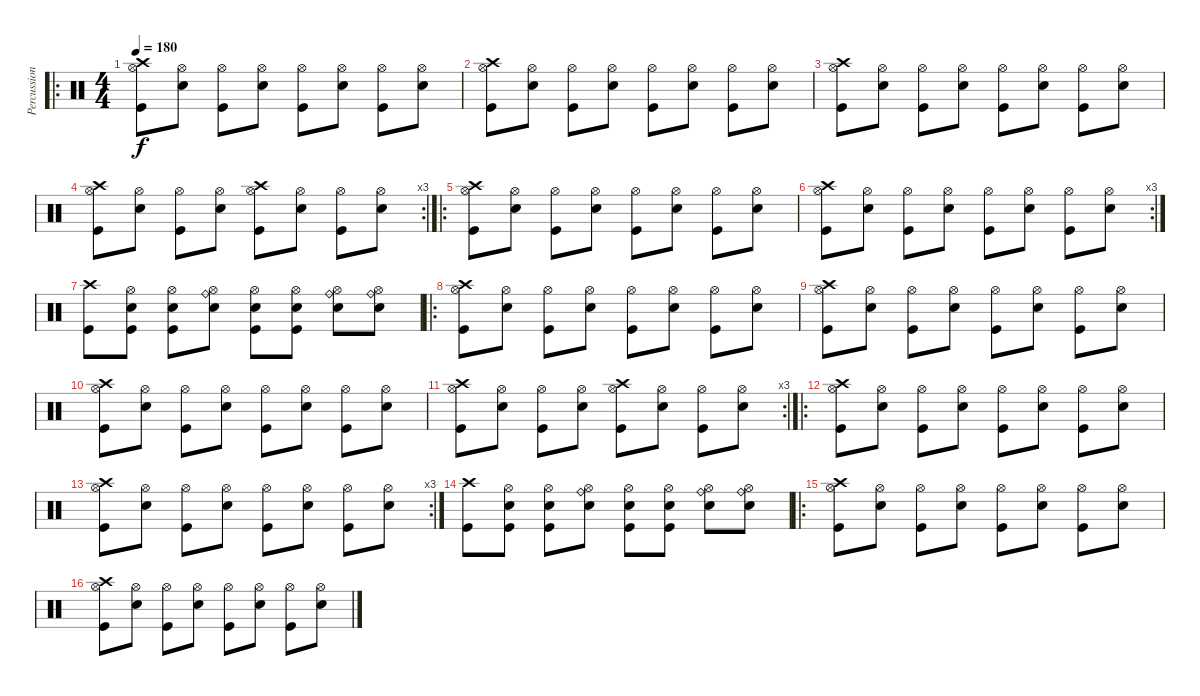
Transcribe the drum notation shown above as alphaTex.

\track ("Percussion" "Percussion") {instrument percussion}
\staff {score}
\articulation defaults
\ro
\ts (4 4)
\tempo 180
\clef neutral
\ks c
("Crash high (hit)" "Hi-Hat (open)" "Kick (hit)").8{dy f} ("Hi-Hat (open)" "Snare (hit) 2").8 ("Hi-Hat (open)" "Kick (hit)").8 ("Hi-Hat (open)" "Snare (hit) 2").8 ("Hi-Hat (open)" "Kick (hit)").8 ("Hi-Hat (open)" "Snare (hit) 2").8 ("Hi-Hat (open)" "Kick (hit)").8 ("Hi-Hat (open)" "Snare (hit) 2").8 |
("Crash high (hit)" "Hi-Hat (open)" "Kick (hit)").8 ("Hi-Hat (open)" "Snare (hit) 2").8 ("Hi-Hat (open)" "Kick (hit)").8 ("Hi-Hat (open)" "Snare (hit) 2").8 ("Hi-Hat (open)" "Kick (hit)").8 ("Hi-Hat (open)" "Snare (hit) 2").8 ("Hi-Hat (open)" "Kick (hit)").8 ("Hi-Hat (open)" "Snare (hit) 2").8 |
("Crash high (hit)" "Hi-Hat (open)" "Kick (hit)").8 ("Hi-Hat (open)" "Snare (hit) 2").8 ("Hi-Hat (open)" "Kick (hit)").8 ("Hi-Hat (open)" "Snare (hit) 2").8 ("Hi-Hat (open)" "Kick (hit)").8 ("Hi-Hat (open)" "Snare (hit) 2").8 ("Hi-Hat (open)" "Kick (hit)").8 ("Hi-Hat (open)" "Snare (hit) 2").8 |
\rc 3
("Crash high (hit)" "Hi-Hat (open)" "Kick (hit)").8 ("Hi-Hat (open)" "Snare (hit) 2").8 ("Hi-Hat (open)" "Kick (hit)").8 ("Hi-Hat (open)" "Snare (hit) 2").8 ("Crash high (hit)" "Hi-Hat (open)" "Kick (hit)").8 ("Hi-Hat (open)" "Snare (hit) 2").8 ("Hi-Hat (open)" "Kick (hit)").8 ("Hi-Hat (open)" "Snare (hit) 2").8 |
\ro
("Crash high (hit)" "Hi-Hat (open)" "Kick (hit)").8 ("Hi-Hat (open)" "Snare (hit) 2").8 ("Hi-Hat (open)" "Kick (hit)").8 ("Hi-Hat (open)" "Snare (hit) 2").8 ("Hi-Hat (open)" "Kick (hit)").8 ("Hi-Hat (open)" "Snare (hit) 2").8 ("Hi-Hat (open)" "Kick (hit)").8 ("Hi-Hat (open)" "Snare (hit) 2").8 |
\rc 3
("Crash high (hit)" "Hi-Hat (open)" "Kick (hit)").8 ("Hi-Hat (open)" "Snare (hit) 2").8 ("Hi-Hat (open)" "Kick (hit)").8 ("Hi-Hat (open)" "Snare (hit) 2").8 ("Hi-Hat (open)" "Kick (hit)").8 ("Hi-Hat (open)" "Snare (hit) 2").8 ("Hi-Hat (open)" "Kick (hit)").8 ("Hi-Hat (open)" "Snare (hit) 2").8 |
("Crash high (hit)" "Kick (hit)").8 ("Hi-Hat (open)" "Snare (hit) 2" "Kick (hit)").8 ("Hi-Hat (open)" "Snare (hit) 2" "Kick (hit)").8 ("Hi-Hat (open)" "Snare (hit) 2" "Ride (bell)").8 ("Hi-Hat (open)" "Snare (hit) 2" "Kick (hit)").8 ("Hi-Hat (open)" "Snare (hit) 2" "Kick (hit)").8 ("Hi-Hat (open)" "Snare (hit) 2" "Ride (bell)").8 ("Hi-Hat (open)" "Snare (hit) 2" "Ride (bell)").8 |
\ro
("Crash high (hit)" "Hi-Hat (open)" "Kick (hit)").8 ("Hi-Hat (open)" "Snare (hit) 2").8 ("Hi-Hat (open)" "Kick (hit)").8 ("Hi-Hat (open)" "Snare (hit) 2").8 ("Hi-Hat (open)" "Kick (hit)").8 ("Hi-Hat (open)" "Snare (hit) 2").8 ("Hi-Hat (open)" "Kick (hit)").8 ("Hi-Hat (open)" "Snare (hit) 2").8 |
("Crash high (hit)" "Hi-Hat (open)" "Kick (hit)").8 ("Hi-Hat (open)" "Snare (hit) 2").8 ("Hi-Hat (open)" "Kick (hit)").8 ("Hi-Hat (open)" "Snare (hit) 2").8 ("Hi-Hat (open)" "Kick (hit)").8 ("Hi-Hat (open)" "Snare (hit) 2").8 ("Hi-Hat (open)" "Kick (hit)").8 ("Hi-Hat (open)" "Snare (hit) 2").8 |
("Crash high (hit)" "Hi-Hat (open)" "Kick (hit)").8 ("Hi-Hat (open)" "Snare (hit) 2").8 ("Hi-Hat (open)" "Kick (hit)").8 ("Hi-Hat (open)" "Snare (hit) 2").8 ("Hi-Hat (open)" "Kick (hit)").8 ("Hi-Hat (open)" "Snare (hit) 2").8 ("Hi-Hat (open)" "Kick (hit)").8 ("Hi-Hat (open)" "Snare (hit) 2").8 |
\rc 3
("Crash high (hit)" "Hi-Hat (open)" "Kick (hit)").8 ("Hi-Hat (open)" "Snare (hit) 2").8 ("Hi-Hat (open)" "Kick (hit)").8 ("Hi-Hat (open)" "Snare (hit) 2").8 ("Crash high (hit)" "Hi-Hat (open)" "Kick (hit)").8 ("Hi-Hat (open)" "Snare (hit) 2").8 ("Hi-Hat (open)" "Kick (hit)").8 ("Hi-Hat (open)" "Snare (hit) 2").8 |
\ro
("Crash high (hit)" "Hi-Hat (open)" "Kick (hit)").8 ("Hi-Hat (open)" "Snare (hit) 2").8 ("Hi-Hat (open)" "Kick (hit)").8 ("Hi-Hat (open)" "Snare (hit) 2").8 ("Hi-Hat (open)" "Kick (hit)").8 ("Hi-Hat (open)" "Snare (hit) 2").8 ("Hi-Hat (open)" "Kick (hit)").8 ("Hi-Hat (open)" "Snare (hit) 2").8 |
\rc 3
("Crash high (hit)" "Hi-Hat (open)" "Kick (hit)").8 ("Hi-Hat (open)" "Snare (hit) 2").8 ("Hi-Hat (open)" "Kick (hit)").8 ("Hi-Hat (open)" "Snare (hit) 2").8 ("Hi-Hat (open)" "Kick (hit)").8 ("Hi-Hat (open)" "Snare (hit) 2").8 ("Hi-Hat (open)" "Kick (hit)").8 ("Hi-Hat (open)" "Snare (hit) 2").8 |
("Crash high (hit)" "Kick (hit)").8 ("Hi-Hat (open)" "Snare (hit) 2" "Kick (hit)").8 ("Hi-Hat (open)" "Snare (hit) 2" "Kick (hit)").8 ("Hi-Hat (open)" "Snare (hit) 2" "Ride (bell)").8 ("Hi-Hat (open)" "Snare (hit) 2" "Kick (hit)").8 ("Hi-Hat (open)" "Snare (hit) 2" "Kick (hit)").8 ("Hi-Hat (open)" "Snare (hit) 2" "Ride (bell)").8 ("Hi-Hat (open)" "Snare (hit) 2" "Ride (bell)").8 |
\ro
("Crash high (hit)" "Hi-Hat (open)" "Kick (hit)").8 ("Hi-Hat (open)" "Snare (hit) 2").8 ("Hi-Hat (open)" "Kick (hit)").8 ("Hi-Hat (open)" "Snare (hit) 2").8 ("Hi-Hat (open)" "Kick (hit)").8 ("Hi-Hat (open)" "Snare (hit) 2").8 ("Hi-Hat (open)" "Kick (hit)").8 ("Hi-Hat (open)" "Snare (hit) 2").8 |
("Crash high (hit)" "Hi-Hat (open)" "Kick (hit)").8 ("Hi-Hat (open)" "Snare (hit) 2").8 ("Hi-Hat (open)" "Kick (hit)").8 ("Hi-Hat (open)" "Snare (hit) 2").8 ("Hi-Hat (open)" "Kick (hit)").8 ("Hi-Hat (open)" "Snare (hit) 2").8 ("Hi-Hat (open)" "Kick (hit)").8 ("Hi-Hat (open)" "Snare (hit) 2").8
